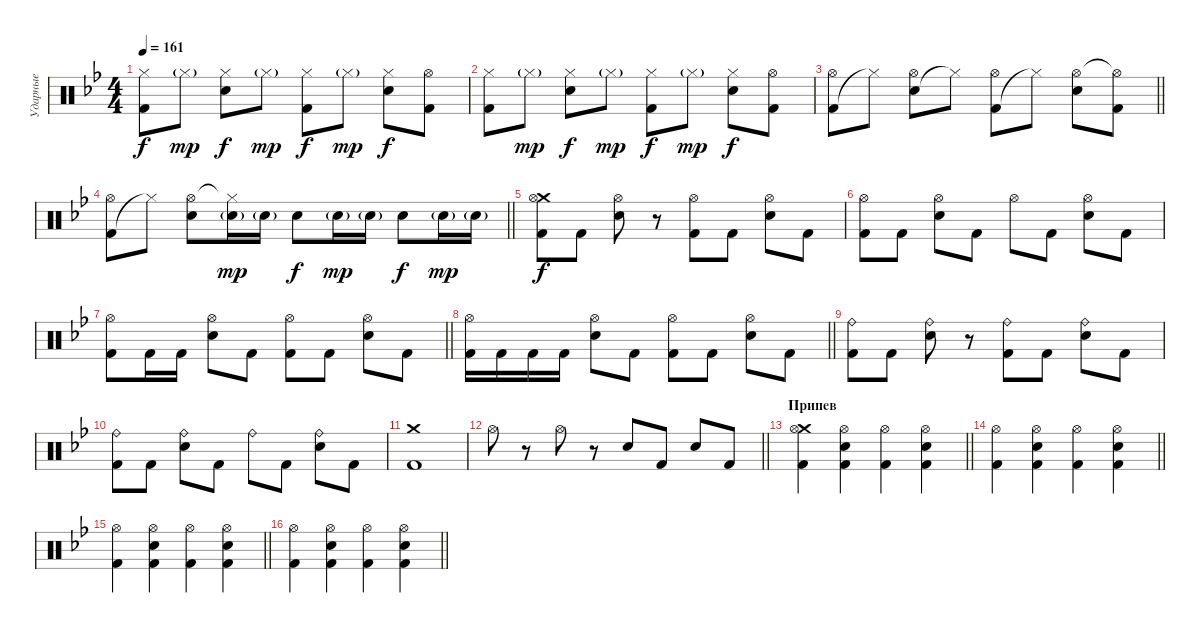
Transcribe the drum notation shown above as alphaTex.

\track ("Ударные" "Ударные") {instrument percussion}
\staff {score}
\articulation defaults
\ts (4 4)
\tempo 161
\clef neutral
\ks gminor
("Kick (hit) 2" "Hi-Hat (closed)").8{dy f} "Hi-Hat (closed)"{g}.8{dy mp} ("Electric Snare (hit)" "Hi-Hat (closed)").8{dy f} "Hi-Hat (closed)"{g}.8{dy mp} ("Kick (hit) 2" "Hi-Hat (closed)").8{dy f} "Hi-Hat (closed)"{g}.8{dy mp} ("Electric Snare (hit)" "Hi-Hat (closed)").8{dy f} ("Kick (hit) 2" "Hi-Hat (open)").8 |
("Kick (hit) 2" "Hi-Hat (closed)").8 "Hi-Hat (closed)"{g}.8{dy mp} ("Electric Snare (hit)" "Hi-Hat (closed)").8{dy f} "Hi-Hat (closed)"{g}.8{dy mp} ("Kick (hit) 2" "Hi-Hat (closed)").8{dy f} "Hi-Hat (closed)"{g}.8{dy mp} ("Electric Snare (hit)" "Hi-Hat (closed)").8{dy f} ("Kick (hit) 2" "Hi-Hat (open)").8 |
\barLineRight lightlight
("Kick (hit) 2" "Hi-Hat (open)").8 "Hi-Hat (closed)"{t}.8 ("Electric Snare (hit)" "Hi-Hat (open)").8 "Hi-Hat (closed)"{t}.8 ("Kick (hit) 2" "Hi-Hat (open)").8 "Hi-Hat (closed)"{t}.8 ("Electric Snare (hit)" "Hi-Hat (open)").8 ("Kick (hit) 2" "Hi-Hat (open)"{t}).8 |
\barLineRight lightlight
("Kick (hit) 2" "Hi-Hat (open)").8 "Hi-Hat (closed)"{t}.8 ("Electric Snare (hit)" "Hi-Hat (open)").8 ("Electric Snare (hit)"{g} "Hi-Hat (closed)"{t}).16{dy mp} "Electric Snare (hit)"{g}.16 "Electric Snare (hit)".8{dy f} "Electric Snare (hit)"{g}.16{dy mp} "Electric Snare (hit)"{g}.16 "Electric Snare (hit)".8{dy f} "Electric Snare (hit)"{g}.16{dy mp} "Electric Snare (hit)"{g}.16 |
\section ("" "")
("Crash medium (hit)" "Kick (hit) 2" "Hi-Hat (open)").8{dy f} "Kick (hit) 2".8 ("Electric Snare (hit)" "Hi-Hat (open)").8 r.8 ("Kick (hit) 2" "Hi-Hat (open)").8 "Kick (hit) 2".8 ("Electric Snare (hit)" "Hi-Hat (open)").8 "Kick (hit) 2".8 |
("Kick (hit) 2" "Hi-Hat (open)").8 "Kick (hit) 2".8 ("Electric Snare (hit)" "Hi-Hat (open)").8 "Kick (hit) 2".8 "Hi-Hat (open)".8 "Kick (hit) 2".8 ("Electric Snare (hit)" "Hi-Hat (open)").8 "Kick (hit) 2".8 |
\barLineRight lightlight
("Kick (hit) 2" "Hi-Hat (open)").8 "Kick (hit) 2".16 "Kick (hit) 2".16 ("Electric Snare (hit)" "Hi-Hat (open)").8 "Kick (hit) 2".8 ("Kick (hit) 2" "Hi-Hat (open)").8 "Kick (hit) 2".8 ("Electric Snare (hit)" "Hi-Hat (open)").8 "Kick (hit) 2".8 |
\barLineRight lightlight
("Kick (hit) 2" "Hi-Hat (open)").16 "Kick (hit) 2".16 "Kick (hit) 2".16 "Kick (hit) 2".16 ("Electric Snare (hit)" "Hi-Hat (open)").8 "Kick (hit) 2".8 ("Kick (hit) 2" "Hi-Hat (open)").8 "Kick (hit) 2".8 ("Electric Snare (hit)" "Hi-Hat (open)").8 "Kick (hit) 2".8 |
("Kick (hit) 2" "Ride (bell)").8 "Kick (hit) 2".8 ("Electric Snare (hit)" "Ride (bell)").8 r.8 ("Kick (hit) 2" "Ride (bell)").8 "Kick (hit) 2".8 ("Electric Snare (hit)" "Ride (bell)").8 "Kick (hit) 2".8 |
("Kick (hit) 2" "Ride (bell)").8 "Kick (hit) 2".8 ("Electric Snare (hit)" "Ride (bell)").8 "Kick (hit) 2".8 "Ride (bell)".8 "Kick (hit) 2".8 ("Electric Snare (hit)" "Ride (bell)").8 "Kick (hit) 2".8 |
("Crash medium (hit)" "Kick (hit) 2").1 |
\barLineRight lightlight "Hi-Hat (open)".8
r.8 "Hi-Hat (open)".8 r.8 "Electric Snare (hit)".8 "Kick (hit) 2".8 "Electric Snare (hit)".8 "Kick (hit) 2".8 |
\section ("" "Припев")
\barLineRight lightlight
("Crash medium (hit)" "Kick (hit) 2" "Hi-Hat (open)").4 ("Electric Snare (hit)" "Kick (hit) 2" "Hi-Hat (open)").4 ("Kick (hit) 2" "Hi-Hat (open)").4 ("Electric Snare (hit)" "Kick (hit) 2" "Hi-Hat (open)").4 |
\barLineRight lightlight
("Kick (hit) 2" "Hi-Hat (open)").4 ("Electric Snare (hit)" "Kick (hit) 2" "Hi-Hat (open)").4 ("Kick (hit) 2" "Hi-Hat (open)").4 ("Electric Snare (hit)" "Kick (hit) 2" "Hi-Hat (open)").4 |
\barLineRight lightlight
("Kick (hit) 2" "Hi-Hat (open)").4 ("Electric Snare (hit)" "Kick (hit) 2" "Hi-Hat (open)").4 ("Kick (hit) 2" "Hi-Hat (open)").4 ("Electric Snare (hit)" "Kick (hit) 2" "Hi-Hat (open)").4 |
\barLineRight lightlight
("Kick (hit) 2" "Hi-Hat (open)").4 ("Electric Snare (hit)" "Kick (hit) 2" "Hi-Hat (open)").4 ("Kick (hit) 2" "Hi-Hat (open)").4 ("Electric Snare (hit)" "Kick (hit) 2" "Hi-Hat (open)").4
